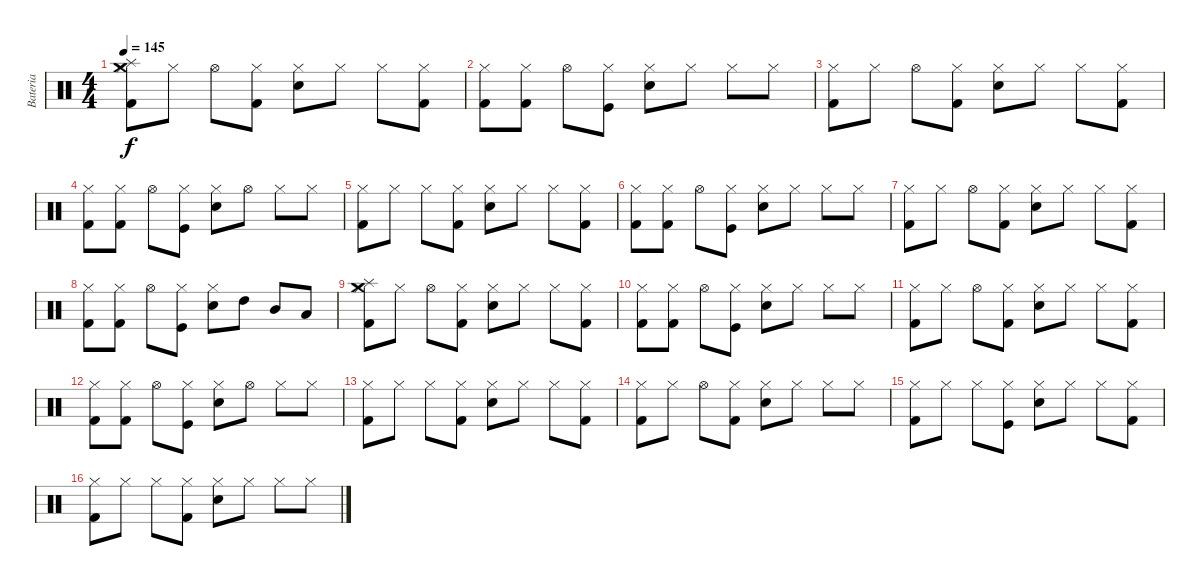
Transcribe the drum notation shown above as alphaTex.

\track ("Bateria" "Bateria") {instrument percussion}
\staff {score}
\articulation defaults
\ts (4 4)
\tempo 145
\clef neutral
\ks c
("Kick (hit) 2" "Hi-Hat (closed)" "Crash medium (hit)" "Splash (hit)").8{dy f} "Hi-Hat (closed)".8 "Hi-Hat (open)".8 ("Kick (hit) 2" "Hi-Hat (closed)").8 ("Electric Snare (hit)" "Hi-Hat (closed)").8 "Hi-Hat (closed)".8 "Hi-Hat (closed)".8 ("Kick (hit) 2" "Hi-Hat (closed)").8 |
("Kick (hit) 2" "Hi-Hat (closed)").8 ("Kick (hit) 2" "Hi-Hat (closed)").8 "Hi-Hat (open)".8 ("Kick (hit)" "Hi-Hat (closed)").8 ("Electric Snare (hit)" "Hi-Hat (closed)").8 "Hi-Hat (closed)".8 "Hi-Hat (closed)".8 "Hi-Hat (closed)".8 |
("Kick (hit) 2" "Hi-Hat (closed)").8 "Hi-Hat (closed)".8 "Hi-Hat (open)".8 ("Kick (hit) 2" "Hi-Hat (closed)").8 ("Electric Snare (hit)" "Hi-Hat (closed)").8 "Hi-Hat (closed)".8 "Hi-Hat (closed)".8 ("Kick (hit) 2" "Hi-Hat (closed)").8 |
("Kick (hit) 2" "Hi-Hat (closed)").8 ("Kick (hit) 2" "Hi-Hat (closed)").8 "Hi-Hat (open)".8 ("Kick (hit)" "Hi-Hat (closed)").8 ("Electric Snare (hit)" "Hi-Hat (closed)").8 "Hi-Hat (open)".8 "Hi-Hat (closed)".8 "Hi-Hat (closed)".8 |
("Kick (hit) 2" "Hi-Hat (closed)").8 "Hi-Hat (closed)".8 "Hi-Hat (closed)".8 ("Kick (hit) 2" "Hi-Hat (closed)").8 ("Electric Snare (hit)" "Hi-Hat (closed)").8 "Hi-Hat (closed)".8 "Hi-Hat (closed)".8 ("Kick (hit) 2" "Hi-Hat (closed)").8 |
("Kick (hit) 2" "Hi-Hat (closed)").8 ("Kick (hit) 2" "Hi-Hat (closed)").8 "Hi-Hat (open)".8 ("Kick (hit)" "Hi-Hat (closed)").8 ("Electric Snare (hit)" "Hi-Hat (closed)").8 "Hi-Hat (closed)".8 "Hi-Hat (closed)".8 "Hi-Hat (closed)".8 |
("Kick (hit) 2" "Hi-Hat (closed)").8 "Hi-Hat (closed)".8 "Hi-Hat (open)".8 ("Kick (hit) 2" "Hi-Hat (closed)").8 ("Electric Snare (hit)" "Hi-Hat (closed)").8 "Hi-Hat (closed)".8 "Hi-Hat (closed)".8 ("Kick (hit) 2" "Hi-Hat (closed)").8 |
("Kick (hit) 2" "Hi-Hat (closed)").8 ("Kick (hit) 2" "Hi-Hat (closed)").8 "Hi-Hat (open)".8 ("Kick (hit)" "Hi-Hat (closed)").8 ("Electric Snare (hit)" "Hi-Hat (closed)").8 "High Tom (hit)".8 "Mid Tom (hit)".8 "Low Tom (hit)".8 |
("Kick (hit) 2" "Hi-Hat (closed)" "Crash medium (hit)" "Splash (hit)").8 "Hi-Hat (closed)".8 "Hi-Hat (open)".8 ("Kick (hit) 2" "Hi-Hat (closed)").8 ("Electric Snare (hit)" "Hi-Hat (closed)").8 "Hi-Hat (closed)".8 "Hi-Hat (closed)".8 ("Kick (hit) 2" "Hi-Hat (closed)").8 |
("Kick (hit) 2" "Hi-Hat (closed)").8 ("Kick (hit) 2" "Hi-Hat (closed)").8 "Hi-Hat (open)".8 ("Kick (hit)" "Hi-Hat (closed)").8 ("Electric Snare (hit)" "Hi-Hat (closed)").8 "Hi-Hat (closed)".8 "Hi-Hat (closed)".8 "Hi-Hat (closed)".8 |
("Kick (hit) 2" "Hi-Hat (closed)").8 "Hi-Hat (closed)".8 "Hi-Hat (open)".8 ("Kick (hit) 2" "Hi-Hat (closed)").8 ("Electric Snare (hit)" "Hi-Hat (closed)").8 "Hi-Hat (closed)".8 "Hi-Hat (closed)".8 ("Kick (hit) 2" "Hi-Hat (closed)").8 |
("Kick (hit) 2" "Hi-Hat (closed)").8 ("Kick (hit) 2" "Hi-Hat (closed)").8 "Hi-Hat (open)".8 ("Kick (hit)" "Hi-Hat (closed)").8 ("Electric Snare (hit)" "Hi-Hat (closed)").8 "Hi-Hat (open)".8 "Hi-Hat (closed)".8 "Hi-Hat (closed)".8 |
("Kick (hit) 2" "Hi-Hat (closed)").8 "Hi-Hat (closed)".8 "Hi-Hat (closed)".8 ("Kick (hit) 2" "Hi-Hat (closed)").8 ("Electric Snare (hit)" "Hi-Hat (closed)").8 "Hi-Hat (closed)".8 "Hi-Hat (closed)".8 ("Kick (hit) 2" "Hi-Hat (closed)").8 |
("Kick (hit) 2" "Hi-Hat (closed)").8 "Hi-Hat (closed)".8 "Hi-Hat (open)".8 ("Kick (hit) 2" "Hi-Hat (closed)").8 ("Electric Snare (hit)" "Hi-Hat (closed)").8 "Hi-Hat (closed)".8 "Hi-Hat (closed)".8 "Hi-Hat (closed)".8 |
("Kick (hit) 2" "Hi-Hat (closed)").8 "Hi-Hat (closed)".8 "Hi-Hat (closed)".8 ("Kick (hit)" "Hi-Hat (closed)").8 ("Electric Snare (hit)" "Hi-Hat (closed)").8 "Hi-Hat (closed)".8 "Hi-Hat (closed)".8 ("Kick (hit) 2" "Hi-Hat (closed)").8 |
("Kick (hit) 2" "Hi-Hat (closed)").8 "Hi-Hat (closed)".8 "Hi-Hat (closed)".8 ("Kick (hit) 2" "Hi-Hat (closed)").8 ("Electric Snare (hit)" "Hi-Hat (closed)").8 "Hi-Hat (closed)".8 "Hi-Hat (closed)".8 "Hi-Hat (closed)".8
